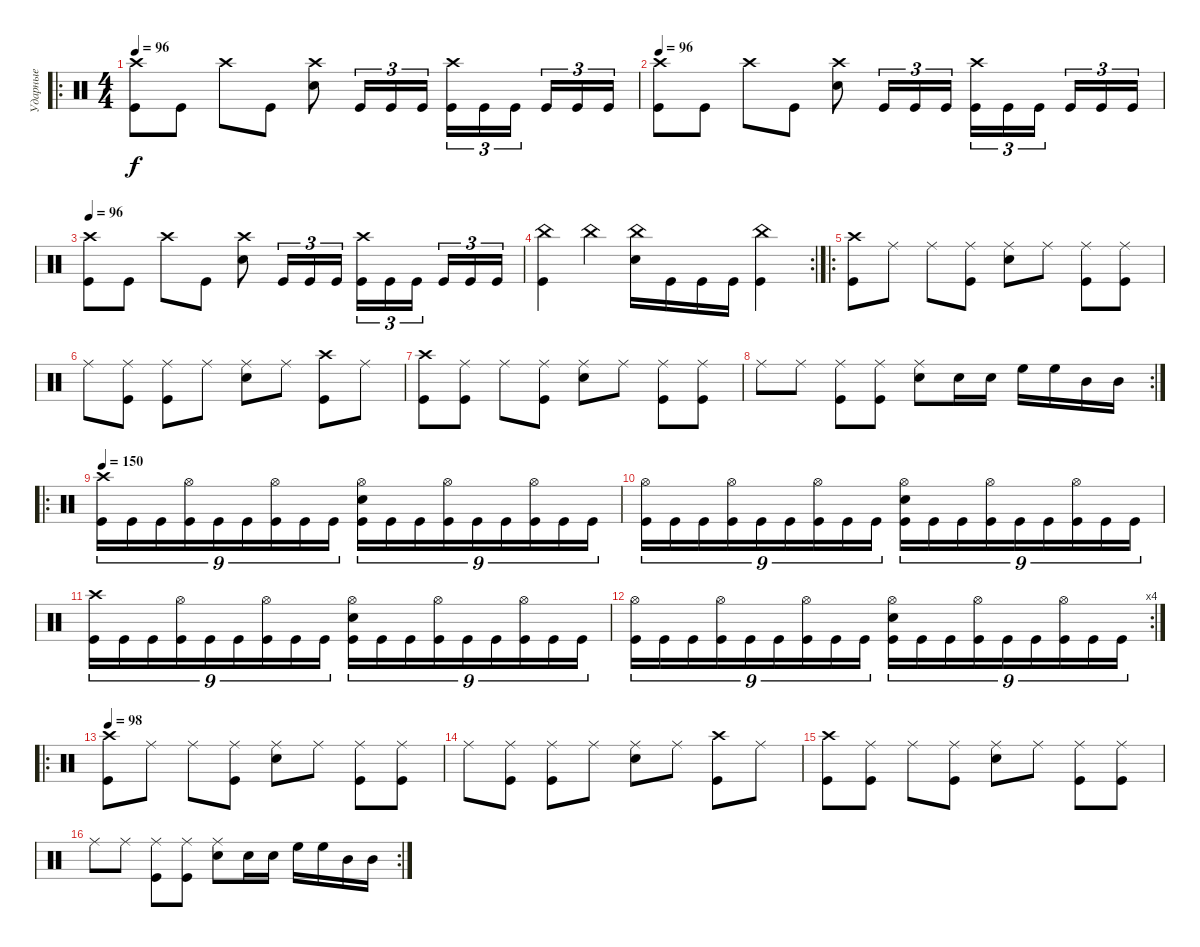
\track ("Ударные" "Ударные") {instrument percussion}
\staff {score}
\articulation defaults
\ro
\ts (4 4)
\tempo 96
\clef neutral
\ks c
("Crash high (hit)" "Kick (hit)").8{dy f} "Kick (hit)".8 "Crash high (hit)".8 "Kick (hit)".8 ("Crash high (hit)" "Snare (hit) 2").8 "Kick (hit)".16{tu (3 2)} "Kick (hit)".16{tu (3 2)} "Kick (hit)".16{tu (3 2)} ("Crash high (hit)" "Kick (hit)").16{tu (3 2)} "Kick (hit)".16{tu (3 2)} "Kick (hit)".16{tu (3 2) beam splitsecondary} "Kick (hit)".16{tu (3 2)} "Kick (hit)".16{tu (3 2)} "Kick (hit)".16{tu (3 2)} |
\tempo 96
("Crash high (hit)" "Kick (hit)").8 "Kick (hit)".8 "Crash high (hit)".8 "Kick (hit)".8 ("Crash high (hit)" "Snare (hit) 2").8 "Kick (hit)".16{tu (3 2)} "Kick (hit)".16{tu (3 2)} "Kick (hit)".16{tu (3 2)} ("Crash high (hit)" "Kick (hit)").16{tu (3 2)} "Kick (hit)".16{tu (3 2)} "Kick (hit)".16{tu (3 2) beam splitsecondary} "Kick (hit)".16{tu (3 2)} "Kick (hit)".16{tu (3 2)} "Kick (hit)".16{tu (3 2)} |
\tempo 96
("Crash high (hit)" "Kick (hit)").8 "Kick (hit)".8 "Crash high (hit)".8 "Kick (hit)".8 ("Crash high (hit)" "Snare (hit) 2").8 "Kick (hit)".16{tu (3 2)} "Kick (hit)".16{tu (3 2)} "Kick (hit)".16{tu (3 2)} ("Crash high (hit)" "Kick (hit)").16{tu (3 2)} "Kick (hit)".16{tu (3 2)} "Kick (hit)".16{tu (3 2) beam splitsecondary} "Kick (hit)".16{tu (3 2)} "Kick (hit)".16{tu (3 2)} "Kick (hit)".16{tu (3 2)} |
\rc 2
("China (hit)" "Kick (hit)").4 "China (hit)".4 ("China (hit)" "Snare (hit) 2").16 "Kick (hit)".16 "Kick (hit)".16 "Kick (hit)".16 ("China (hit)" "Kick (hit)").4 |
\ro
("Crash high (hit)" "Kick (hit)").8 "Ride (middle)".8 "Ride (middle)".8 ("Ride (middle)" "Kick (hit)").8 ("Ride (middle)" "Snare (hit) 2").8 "Ride (middle)".8 ("Ride (middle)" "Kick (hit)").8 ("Ride (middle)" "Kick (hit)").8 |
"Ride (middle)".8 ("Ride (middle)" "Kick (hit)").8 ("Ride (middle)" "Kick (hit)").8 "Ride (middle)".8 ("Ride (middle)" "Snare (hit) 2").8 "Ride (middle)".8 ("Crash high (hit)" "Kick (hit)").8 "Ride (middle)".8 |
("Crash high (hit)" "Kick (hit)").8 ("Ride (middle)" "Kick (hit)").8 "Ride (middle)".8 ("Ride (middle)" "Kick (hit)").8 ("Ride (middle)" "Snare (hit) 2").8 "Ride (middle)".8 ("Ride (middle)" "Kick (hit)").8 ("Ride (middle)" "Kick (hit)").8 |
\rc 2 "Ride (middle)".8 "Ride (middle)".8
("Ride (middle)" "Kick (hit)").8 ("Ride (middle)" "Kick (hit)").8 ("Ride (middle)" "Snare (hit) 2").8 "Snare (hit) 2".16 "Snare (hit) 2".16 "High Floor Tom (hit)".16 "High Floor Tom (hit)".16 "Mid Tom (hit)".16 "Mid Tom (hit)".16 |
\ro
\tempo 150
("Crash high (hit)" "Kick (hit)").16{tu (9 8)} "Kick (hit)".16{tu (9 8)} "Kick (hit)".16{tu (9 8)} ("Hi-Hat (open)" "Kick (hit)").16{tu (9 8)} "Kick (hit)".16{tu (9 8)} "Kick (hit)".16{tu (9 8)} ("Hi-Hat (open)" "Kick (hit)").16{tu (9 8)} "Kick (hit)".16{tu (9 8)} "Kick (hit)".16{tu (9 8)} ("Snare (hit) 2" "Hi-Hat (open)" "Kick (hit)").16{tu (9 8)} "Kick (hit)".16{tu (9 8)} "Kick (hit)".16{tu (9 8)} ("Hi-Hat (open)" "Kick (hit)").16{tu (9 8)} "Kick (hit)".16{tu (9 8)} "Kick (hit)".16{tu (9 8)} ("Hi-Hat (open)" "Kick (hit)").16{tu (9 8)} "Kick (hit)".16{tu (9 8)} "Kick (hit)".16{tu (9 8)} |
("Hi-Hat (open)" "Kick (hit)").16{tu (9 8)} "Kick (hit)".16{tu (9 8)} "Kick (hit)".16{tu (9 8)} ("Hi-Hat (open)" "Kick (hit)").16{tu (9 8)} "Kick (hit)".16{tu (9 8)} "Kick (hit)".16{tu (9 8)} ("Hi-Hat (open)" "Kick (hit)").16{tu (9 8)} "Kick (hit)".16{tu (9 8)} "Kick (hit)".16{tu (9 8)} ("Snare (hit) 2" "Hi-Hat (open)" "Kick (hit)").16{tu (9 8)} "Kick (hit)".16{tu (9 8)} "Kick (hit)".16{tu (9 8)} ("Hi-Hat (open)" "Kick (hit)").16{tu (9 8)} "Kick (hit)".16{tu (9 8)} "Kick (hit)".16{tu (9 8)} ("Hi-Hat (open)" "Kick (hit)").16{tu (9 8)} "Kick (hit)".16{tu (9 8)} "Kick (hit)".16{tu (9 8)} |
("Crash high (hit)" "Kick (hit)").16{tu (9 8)} "Kick (hit)".16{tu (9 8)} "Kick (hit)".16{tu (9 8)} ("Hi-Hat (open)" "Kick (hit)").16{tu (9 8)} "Kick (hit)".16{tu (9 8)} "Kick (hit)".16{tu (9 8)} ("Hi-Hat (open)" "Kick (hit)").16{tu (9 8)} "Kick (hit)".16{tu (9 8)} "Kick (hit)".16{tu (9 8)} ("Snare (hit) 2" "Hi-Hat (open)" "Kick (hit)").16{tu (9 8)} "Kick (hit)".16{tu (9 8)} "Kick (hit)".16{tu (9 8)} ("Hi-Hat (open)" "Kick (hit)").16{tu (9 8)} "Kick (hit)".16{tu (9 8)} "Kick (hit)".16{tu (9 8)} ("Hi-Hat (open)" "Kick (hit)").16{tu (9 8)} "Kick (hit)".16{tu (9 8)} "Kick (hit)".16{tu (9 8)} |
\rc 4
("Hi-Hat (open)" "Kick (hit)").16{tu (9 8)} "Kick (hit)".16{tu (9 8)} "Kick (hit)".16{tu (9 8)} ("Hi-Hat (open)" "Kick (hit)").16{tu (9 8)} "Kick (hit)".16{tu (9 8)} "Kick (hit)".16{tu (9 8)} ("Hi-Hat (open)" "Kick (hit)").16{tu (9 8)} "Kick (hit)".16{tu (9 8)} "Kick (hit)".16{tu (9 8)} ("Snare (hit) 2" "Hi-Hat (open)" "Kick (hit)").16{tu (9 8)} "Kick (hit)".16{tu (9 8)} "Kick (hit)".16{tu (9 8)} ("Hi-Hat (open)" "Kick (hit)").16{tu (9 8)} "Kick (hit)".16{tu (9 8)} "Kick (hit)".16{tu (9 8)} ("Hi-Hat (open)" "Kick (hit)").16{tu (9 8)} "Kick (hit)".16{tu (9 8)} "Kick (hit)".16{tu (9 8)} |
\ro
\tempo 98
("Crash high (hit)" "Kick (hit)").8 "Ride (middle)".8 "Ride (middle)".8 ("Ride (middle)" "Kick (hit)").8 ("Ride (middle)" "Snare (hit) 2").8 "Ride (middle)".8 ("Ride (middle)" "Kick (hit)").8 ("Ride (middle)" "Kick (hit)").8 |
"Ride (middle)".8 ("Ride (middle)" "Kick (hit)").8 ("Ride (middle)" "Kick (hit)").8 "Ride (middle)".8 ("Ride (middle)" "Snare (hit) 2").8 "Ride (middle)".8 ("Crash high (hit)" "Kick (hit)").8 "Ride (middle)".8 |
("Crash high (hit)" "Kick (hit)").8 ("Ride (middle)" "Kick (hit)").8 "Ride (middle)".8 ("Ride (middle)" "Kick (hit)").8 ("Ride (middle)" "Snare (hit) 2").8 "Ride (middle)".8 ("Ride (middle)" "Kick (hit)").8 ("Ride (middle)" "Kick (hit)").8 |
\rc 2 "Ride (middle)".8 "Ride (middle)".8
("Ride (middle)" "Kick (hit)").8 ("Ride (middle)" "Kick (hit)").8 ("Ride (middle)" "Snare (hit) 2").8 "Snare (hit) 2".16 "Snare (hit) 2".16 "High Floor Tom (hit)".16 "High Floor Tom (hit)".16 "Mid Tom (hit)".16 "Mid Tom (hit)".16
